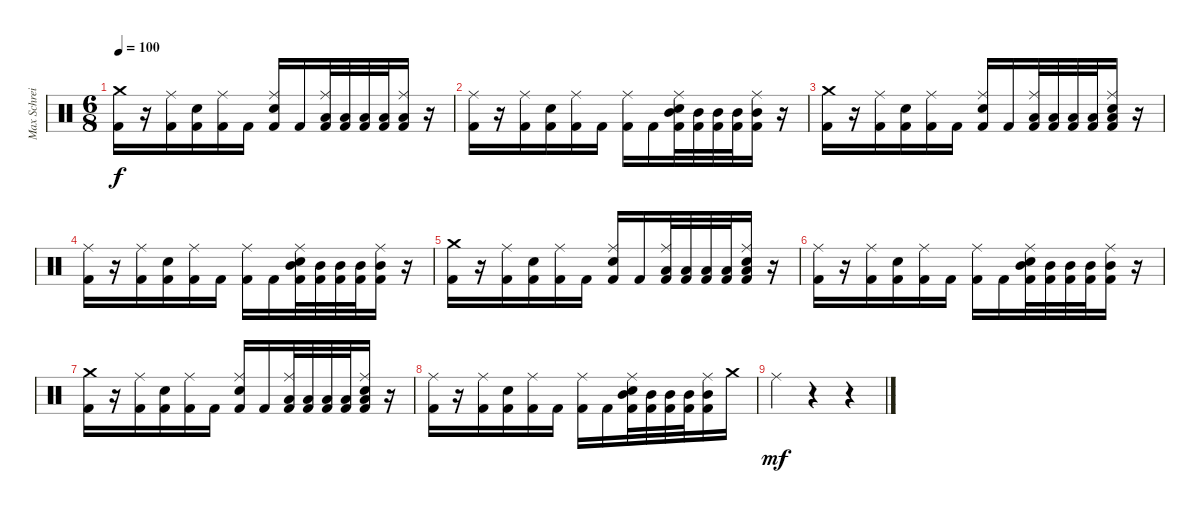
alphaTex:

\track ("Max Schreiber " "Max Schrei") {instrument percussion}
\staff {score}
\articulation defaults
\ts (6 8)
\tempo 100
\clef neutral
\ks c
("Crash medium (hit)" "Kick (hit) 2").16{dy f} r.16 ("Ride (middle)" "Kick (hit) 2").16 ("Electric Snare (hit)" "Kick (hit) 2").16 ("Ride (middle)" "Kick (hit) 2").16 "Kick (hit) 2".16 ("Ride (middle)" "Electric Snare (hit)" "Kick (hit) 2").16 "Kick (hit) 2".16 ("Ride (middle)" "Low Floor Tom (hit)" "Kick (hit) 2").32 ("Low Floor Tom (hit)" "Kick (hit) 2").32 ("Low Floor Tom (hit)" "Kick (hit) 2").32 ("Low Floor Tom (hit)" "Kick (hit) 2").32 ("Ride (middle)" "Low Floor Tom (hit)" "Kick (hit) 2").16 r.16 |
("Ride (middle)" "Kick (hit) 2").16 r.16 ("Ride (middle)" "Kick (hit) 2").16 ("Electric Snare (hit)" "Kick (hit) 2").16 ("Ride (middle)" "Kick (hit) 2").16 "Kick (hit) 2".16 ("Ride (middle)" "Kick (hit) 2").16 "Kick (hit) 2".16 ("Ride (middle)" "Electric Snare (hit)" "Mid Tom (hit)" "Kick (hit) 2").32 ("Mid Tom (hit)" "Kick (hit) 2").32 ("Mid Tom (hit)" "Kick (hit) 2").32 ("Mid Tom (hit)" "Kick (hit) 2").32 ("Ride (middle)" "Mid Tom (hit)" "Kick (hit) 2").16 r.16 |
("Crash medium (hit)" "Kick (hit) 2").16 r.16 ("Ride (middle)" "Kick (hit) 2").16 ("Electric Snare (hit)" "Kick (hit) 2").16 ("Ride (middle)" "Kick (hit) 2").16 "Kick (hit) 2".16 ("Ride (middle)" "Electric Snare (hit)" "Kick (hit) 2").16 "Kick (hit) 2".16 ("Ride (middle)" "Low Floor Tom (hit)" "Kick (hit) 2").32 ("Low Floor Tom (hit)" "Kick (hit) 2").32 ("Low Floor Tom (hit)" "Kick (hit) 2").32 ("Low Floor Tom (hit)" "Kick (hit) 2").32 ("Ride (middle)" "Electric Snare (hit)" "Low Floor Tom (hit)" "Kick (hit) 2").16 r.16 |
("Ride (middle)" "Kick (hit) 2").16 r.16 ("Ride (middle)" "Kick (hit) 2").16 ("Electric Snare (hit)" "Kick (hit) 2").16 ("Ride (middle)" "Kick (hit) 2").16 "Kick (hit) 2".16 ("Ride (middle)" "Kick (hit) 2").16 "Kick (hit) 2".16 ("Ride (middle)" "Electric Snare (hit)" "Mid Tom (hit)" "Kick (hit) 2").32 ("Mid Tom (hit)" "Kick (hit) 2").32 ("Mid Tom (hit)" "Kick (hit) 2").32 ("Mid Tom (hit)" "Kick (hit) 2").32 ("Ride (middle)" "Mid Tom (hit)" "Kick (hit) 2").16 r.16 |
("Crash medium (hit)" "Kick (hit) 2").16 r.16 ("Ride (middle)" "Kick (hit) 2").16 ("Electric Snare (hit)" "Kick (hit) 2").16 ("Ride (middle)" "Kick (hit) 2").16 "Kick (hit) 2".16 ("Ride (middle)" "Electric Snare (hit)" "Kick (hit) 2").16 "Kick (hit) 2".16 ("Ride (middle)" "Low Floor Tom (hit)" "Kick (hit) 2").32 ("Low Floor Tom (hit)" "Kick (hit) 2").32 ("Low Floor Tom (hit)" "Kick (hit) 2").32 ("Low Floor Tom (hit)" "Kick (hit) 2").32 ("Ride (middle)" "Electric Snare (hit)" "Low Floor Tom (hit)" "Kick (hit) 2").16 r.16 |
("Ride (middle)" "Kick (hit) 2").16 r.16 ("Ride (middle)" "Kick (hit) 2").16 ("Electric Snare (hit)" "Kick (hit) 2").16 ("Ride (middle)" "Kick (hit) 2").16 "Kick (hit) 2".16 ("Ride (middle)" "Kick (hit) 2").16 "Kick (hit) 2".16 ("Ride (middle)" "Electric Snare (hit)" "Mid Tom (hit)" "Kick (hit) 2").32 ("Mid Tom (hit)" "Kick (hit) 2").32 ("Mid Tom (hit)" "Kick (hit) 2").32 ("Mid Tom (hit)" "Kick (hit) 2").32 ("Ride (middle)" "Mid Tom (hit)" "Kick (hit) 2").16 r.16 |
("Crash medium (hit)" "Kick (hit) 2").16 r.16 ("Ride (middle)" "Kick (hit) 2").16 ("Electric Snare (hit)" "Kick (hit) 2").16 ("Ride (middle)" "Kick (hit) 2").16 "Kick (hit) 2".16 ("Ride (middle)" "Electric Snare (hit)" "Kick (hit) 2").16 "Kick (hit) 2".16 ("Ride (middle)" "Low Floor Tom (hit)" "Kick (hit) 2").32 ("Low Floor Tom (hit)" "Kick (hit) 2").32 ("Low Floor Tom (hit)" "Kick (hit) 2").32 ("Low Floor Tom (hit)" "Kick (hit) 2").32 ("Ride (middle)" "Electric Snare (hit)" "Low Floor Tom (hit)" "Kick (hit) 2").16 r.16 |
("Ride (middle)" "Kick (hit) 2").16 r.16 ("Ride (middle)" "Kick (hit) 2").16 ("Electric Snare (hit)" "Kick (hit) 2").16 ("Ride (middle)" "Kick (hit) 2").16 "Kick (hit) 2".16 ("Ride (middle)" "Kick (hit) 2").16 "Kick (hit) 2".16 ("Ride (middle)" "Electric Snare (hit)" "Mid Tom (hit)" "Kick (hit) 2").32 ("Mid Tom (hit)" "Kick (hit) 2").32 ("Mid Tom (hit)" "Kick (hit) 2").32 ("Mid Tom (hit)" "Kick (hit) 2").32 ("Ride (middle)" "Mid Tom (hit)" "Kick (hit) 2").16 "Crash medium (hit)".16 |
"Ride (middle)".4{dy mf} r.4 r.4
